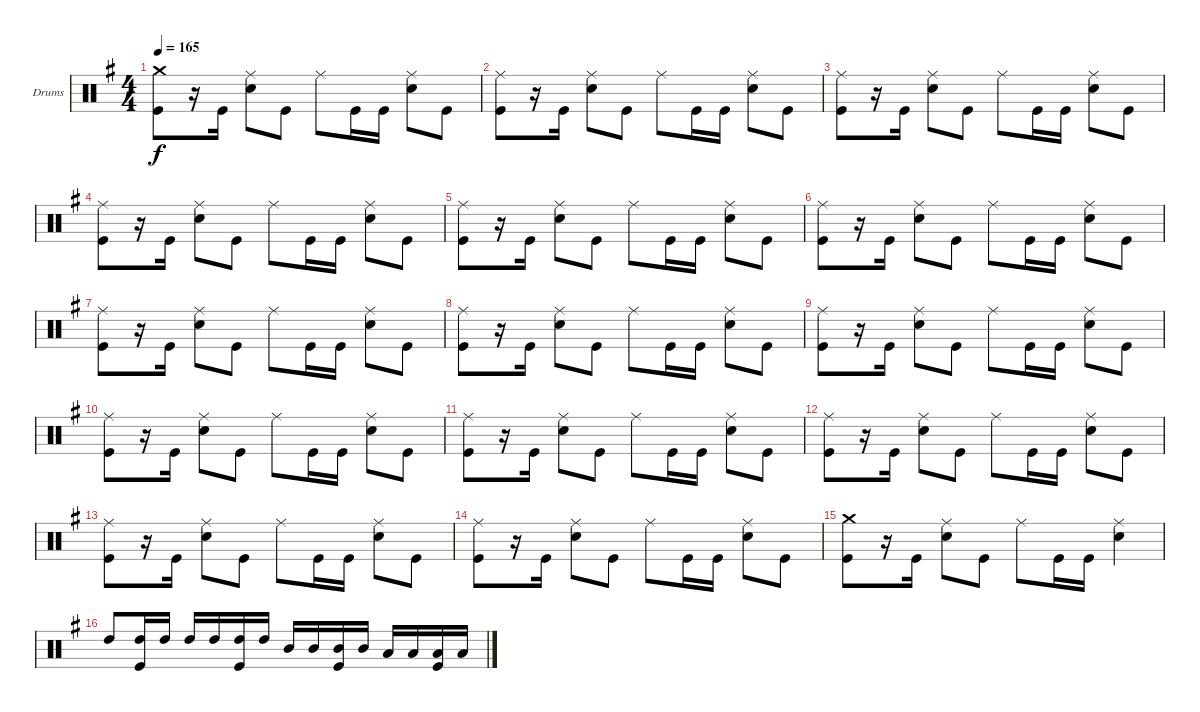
\bracketExtendMode groupsimilarinstruments
\firstSystemTrackNameOrientation horizontal
\otherSystemsTrackNameOrientation horizontal
\track ("Александр Манякин" "Drums") {instrument percussion}
\staff {score}
\articulation defaults
\ts (4 4)
\tempo 165
\clef neutral
\ks eminor
("Kick (hit)" "Crash medium (hit)").8{dy f} r.16 "Kick (hit)".16 ("Snare (hit) 2" "Ride (middle)").8 "Kick (hit)".8 "Ride (middle)".8 "Kick (hit)".16 "Kick (hit)".16 ("Snare (hit) 2" "Ride (middle)").8 "Kick (hit)".8 |
("Kick (hit)" "Ride (middle)").8 r.16 "Kick (hit)".16 ("Snare (hit) 2" "Ride (middle)").8 "Kick (hit)".8 "Ride (middle)".8 "Kick (hit)".16 "Kick (hit)".16 ("Snare (hit) 2" "Ride (middle)").8 "Kick (hit)".8 |
("Kick (hit)" "Ride (middle)").8 r.16 "Kick (hit)".16 ("Snare (hit) 2" "Ride (middle)").8 "Kick (hit)".8 "Ride (middle)".8 "Kick (hit)".16 "Kick (hit)".16 ("Snare (hit) 2" "Ride (middle)").8 "Kick (hit)".8 |
("Kick (hit)" "Ride (middle)").8 r.16 "Kick (hit)".16 ("Snare (hit) 2" "Ride (middle)").8 "Kick (hit)".8 "Ride (middle)".8 "Kick (hit)".16 "Kick (hit)".16 ("Snare (hit) 2" "Ride (middle)").8 "Kick (hit)".8 |
("Kick (hit)" "Ride (middle)").8 r.16 "Kick (hit)".16 ("Snare (hit) 2" "Ride (middle)").8 "Kick (hit)".8 "Ride (middle)".8 "Kick (hit)".16 "Kick (hit)".16 ("Snare (hit) 2" "Ride (middle)").8 "Kick (hit)".8 |
("Kick (hit)" "Ride (middle)").8 r.16 "Kick (hit)".16 ("Snare (hit) 2" "Ride (middle)").8 "Kick (hit)".8 "Ride (middle)".8 "Kick (hit)".16 "Kick (hit)".16 ("Snare (hit) 2" "Ride (middle)").8 "Kick (hit)".8 |
("Kick (hit)" "Ride (middle)").8 r.16 "Kick (hit)".16 ("Snare (hit) 2" "Ride (middle)").8 "Kick (hit)".8 "Ride (middle)".8 "Kick (hit)".16 "Kick (hit)".16 ("Snare (hit) 2" "Ride (middle)").8 "Kick (hit)".8 |
("Kick (hit)" "Ride (middle)").8 r.16 "Kick (hit)".16 ("Snare (hit) 2" "Ride (middle)").8 "Kick (hit)".8 "Ride (middle)".8 "Kick (hit)".16 "Kick (hit)".16 ("Snare (hit) 2" "Ride (middle)").8 "Kick (hit)".8 |
("Kick (hit)" "Ride (middle)").8 r.16 "Kick (hit)".16 ("Snare (hit) 2" "Ride (middle)").8 "Kick (hit)".8 "Ride (middle)".8 "Kick (hit)".16 "Kick (hit)".16 ("Snare (hit) 2" "Ride (middle)").8 "Kick (hit)".8 |
("Kick (hit)" "Ride (middle)").8 r.16 "Kick (hit)".16 ("Snare (hit) 2" "Ride (middle)").8 "Kick (hit)".8 "Ride (middle)".8 "Kick (hit)".16 "Kick (hit)".16 ("Snare (hit) 2" "Ride (middle)").8 "Kick (hit)".8 |
("Kick (hit)" "Ride (middle)").8 r.16 "Kick (hit)".16 ("Snare (hit) 2" "Ride (middle)").8 "Kick (hit)".8 "Ride (middle)".8 "Kick (hit)".16 "Kick (hit)".16 ("Snare (hit) 2" "Ride (middle)").8 "Kick (hit)".8 |
("Kick (hit)" "Ride (middle)").8 r.16 "Kick (hit)".16 ("Snare (hit) 2" "Ride (middle)").8 "Kick (hit)".8 "Ride (middle)".8 "Kick (hit)".16 "Kick (hit)".16 ("Snare (hit) 2" "Ride (middle)").8 "Kick (hit)".8 |
("Kick (hit)" "Ride (middle)").8 r.16 "Kick (hit)".16 ("Snare (hit) 2" "Ride (middle)").8 "Kick (hit)".8 "Ride (middle)".8 "Kick (hit)".16 "Kick (hit)".16 ("Snare (hit) 2" "Ride (middle)").8 "Kick (hit)".8 |
("Kick (hit)" "Ride (middle)").8 r.16 "Kick (hit)".16 ("Snare (hit) 2" "Ride (middle)").8 "Kick (hit)".8 "Ride (middle)".8 "Kick (hit)".16 "Kick (hit)".16 ("Snare (hit) 2" "Ride (middle)").8 "Kick (hit)".8 |
("Kick (hit)" "Crash medium (hit)").8 r.16 "Kick (hit)".16 ("Snare (hit) 2" "Ride (middle)").8 "Kick (hit)".8 "Ride (middle)".8 "Kick (hit)".16 "Kick (hit)".16 ("Snare (hit) 2" "Ride (middle)").4 |
"High Tom (hit)".8 ("High Tom (hit)" "Kick (hit)").16 "High Tom (hit)".16 "High Tom (hit)".16 "High Tom (hit)".16 ("High Tom (hit)" "Kick (hit)").16 "High Tom (hit)".16 "Mid Tom (hit)".16 "Mid Tom (hit)".16 ("Mid Tom (hit)" "Kick (hit)").16 "Mid Tom (hit)".16 "Low Tom (hit)".16 "Low Tom (hit)".16 ("Low Tom (hit)" "Kick (hit)").16 "Low Tom (hit)".16
